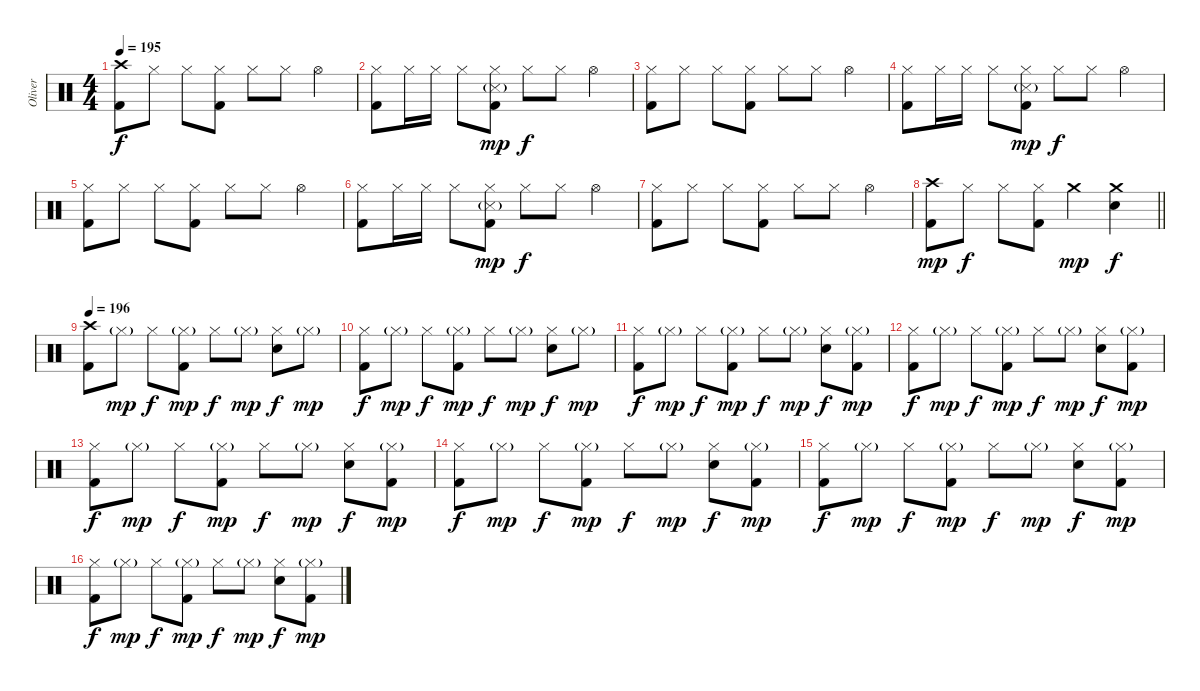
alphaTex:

\track ("Oliver" "Oliver") {instrument percussion}
\staff {score}
\articulation defaults
\ts (4 4)
\section ("" "")
\tempo 195
\clef neutral
\ks c
("Crash high (hit)" "Kick (hit) 2").8{dy f} "Hi-Hat (closed)".8 "Hi-Hat (closed)".8 ("Hi-Hat (closed)" "Kick (hit) 2").8 "Hi-Hat (closed)".8 "Hi-Hat (closed)".8 "Hi-Hat (open)".4 |
("Hi-Hat (closed)" "Kick (hit) 2").8 "Hi-Hat (closed)".16 "Hi-Hat (closed)".16 "Hi-Hat (closed)".8 ("Hi-Hat (closed)" "Snare (side stick) 3"{g} "Kick (hit) 2").8{dy mp} "Hi-Hat (closed)".8{dy f} "Hi-Hat (closed)".8 "Hi-Hat (open)".4 |
("Hi-Hat (closed)" "Kick (hit) 2").8 "Hi-Hat (closed)".8 "Hi-Hat (closed)".8 ("Hi-Hat (closed)" "Kick (hit) 2").8 "Hi-Hat (closed)".8 "Hi-Hat (closed)".8 "Hi-Hat (open)".4 |
("Hi-Hat (closed)" "Kick (hit) 2").8 "Hi-Hat (closed)".16 "Hi-Hat (closed)".16 "Hi-Hat (closed)".8 ("Hi-Hat (closed)" "Snare (side stick) 3"{g} "Kick (hit) 2").8{dy mp} "Hi-Hat (closed)".8{dy f} "Hi-Hat (closed)".8 "Hi-Hat (open)".4 |
("Hi-Hat (closed)" "Kick (hit) 2").8 "Hi-Hat (closed)".8 "Hi-Hat (closed)".8 ("Hi-Hat (closed)" "Kick (hit) 2").8 "Hi-Hat (closed)".8 "Hi-Hat (closed)".8 "Hi-Hat (open)".4 |
("Hi-Hat (closed)" "Kick (hit) 2").8 "Hi-Hat (closed)".16 "Hi-Hat (closed)".16 "Hi-Hat (closed)".8 ("Hi-Hat (closed)" "Snare (side stick) 3"{g} "Kick (hit) 2").8{dy mp} "Hi-Hat (closed)".8{dy f} "Hi-Hat (closed)".8 "Hi-Hat (open)".4 |
("Hi-Hat (closed)" "Kick (hit) 2").8 "Hi-Hat (closed)".8 "Hi-Hat (closed)".8 ("Hi-Hat (closed)" "Kick (hit) 2").8 "Hi-Hat (closed)".8 "Hi-Hat (closed)".8 "Hi-Hat (open)".4 |
\barLineRight lightlight
("Crash high (hit)" "Kick (hit) 2").8{dy mp} "Hi-Hat (closed)".8{dy f} "Hi-Hat (closed)".8 ("Hi-Hat (closed)" "Kick (hit) 2").8 "Crash medium (hit)".4{dy mp} ("Crash medium (hit)" "Electric Snare (hit)").4{dy f} |
\section ("" "")
\tempo 196
("Crash high (hit)" "Kick (hit) 2").8 "Hi-Hat (closed)"{g}.8{dy mp} "Hi-Hat (closed)".8{dy f} ("Hi-Hat (closed)"{g} "Kick (hit) 2").8{dy mp} "Hi-Hat (closed)".8{dy f} "Hi-Hat (closed)"{g}.8{dy mp} ("Hi-Hat (closed)" "Electric Snare (hit)").8{dy f} "Hi-Hat (closed)"{g}.8{dy mp} |
("Hi-Hat (closed)" "Kick (hit) 2").8{dy f} "Hi-Hat (closed)"{g}.8{dy mp} "Hi-Hat (closed)".8{dy f} ("Hi-Hat (closed)"{g} "Kick (hit) 2").8{dy mp} "Hi-Hat (closed)".8{dy f} "Hi-Hat (closed)"{g}.8{dy mp} ("Hi-Hat (closed)" "Electric Snare (hit)").8{dy f} "Hi-Hat (closed)"{g}.8{dy mp} |
("Hi-Hat (closed)" "Kick (hit) 2").8{dy f} "Hi-Hat (closed)"{g}.8{dy mp} "Hi-Hat (closed)".8{dy f} ("Hi-Hat (closed)"{g} "Kick (hit) 2").8{dy mp} "Hi-Hat (closed)".8{dy f} "Hi-Hat (closed)"{g}.8{dy mp} ("Hi-Hat (closed)" "Electric Snare (hit)").8{dy f} ("Hi-Hat (closed)"{g} "Kick (hit) 2").8{dy mp} |
("Hi-Hat (closed)" "Kick (hit) 2").8{dy f} "Hi-Hat (closed)"{g}.8{dy mp} "Hi-Hat (closed)".8{dy f} ("Hi-Hat (closed)"{g} "Kick (hit) 2").8{dy mp} "Hi-Hat (closed)".8{dy f} "Hi-Hat (closed)"{g}.8{dy mp} ("Hi-Hat (closed)" "Electric Snare (hit)").8{dy f} ("Hi-Hat (closed)"{g} "Kick (hit) 2").8{dy mp} |
("Hi-Hat (closed)" "Kick (hit) 2").8{dy f} "Hi-Hat (closed)"{g}.8{dy mp} "Hi-Hat (closed)".8{dy f} ("Hi-Hat (closed)"{g} "Kick (hit) 2").8{dy mp} "Hi-Hat (closed)".8{dy f} "Hi-Hat (closed)"{g}.8{dy mp} ("Hi-Hat (closed)" "Electric Snare (hit)").8{dy f} ("Hi-Hat (closed)"{g} "Kick (hit) 2").8{dy mp} |
("Hi-Hat (closed)" "Kick (hit) 2").8{dy f} "Hi-Hat (closed)"{g}.8{dy mp} "Hi-Hat (closed)".8{dy f} ("Hi-Hat (closed)"{g} "Kick (hit) 2").8{dy mp} "Hi-Hat (closed)".8{dy f} "Hi-Hat (closed)"{g}.8{dy mp} ("Hi-Hat (closed)" "Electric Snare (hit)").8{dy f} ("Hi-Hat (closed)"{g} "Kick (hit) 2").8{dy mp} |
("Hi-Hat (closed)" "Kick (hit) 2").8{dy f} "Hi-Hat (closed)"{g}.8{dy mp} "Hi-Hat (closed)".8{dy f} ("Hi-Hat (closed)"{g} "Kick (hit) 2").8{dy mp} "Hi-Hat (closed)".8{dy f} "Hi-Hat (closed)"{g}.8{dy mp} ("Hi-Hat (closed)" "Electric Snare (hit)").8{dy f} ("Hi-Hat (closed)"{g} "Kick (hit) 2").8{dy mp} |
("Hi-Hat (closed)" "Kick (hit) 2").8{dy f} "Hi-Hat (closed)"{g}.8{dy mp} "Hi-Hat (closed)".8{dy f} ("Hi-Hat (closed)"{g} "Kick (hit) 2").8{dy mp} "Hi-Hat (closed)".8{dy f} "Hi-Hat (closed)"{g}.8{dy mp} ("Hi-Hat (closed)" "Electric Snare (hit)").8{dy f} ("Hi-Hat (closed)"{g} "Kick (hit) 2").8{dy mp}
